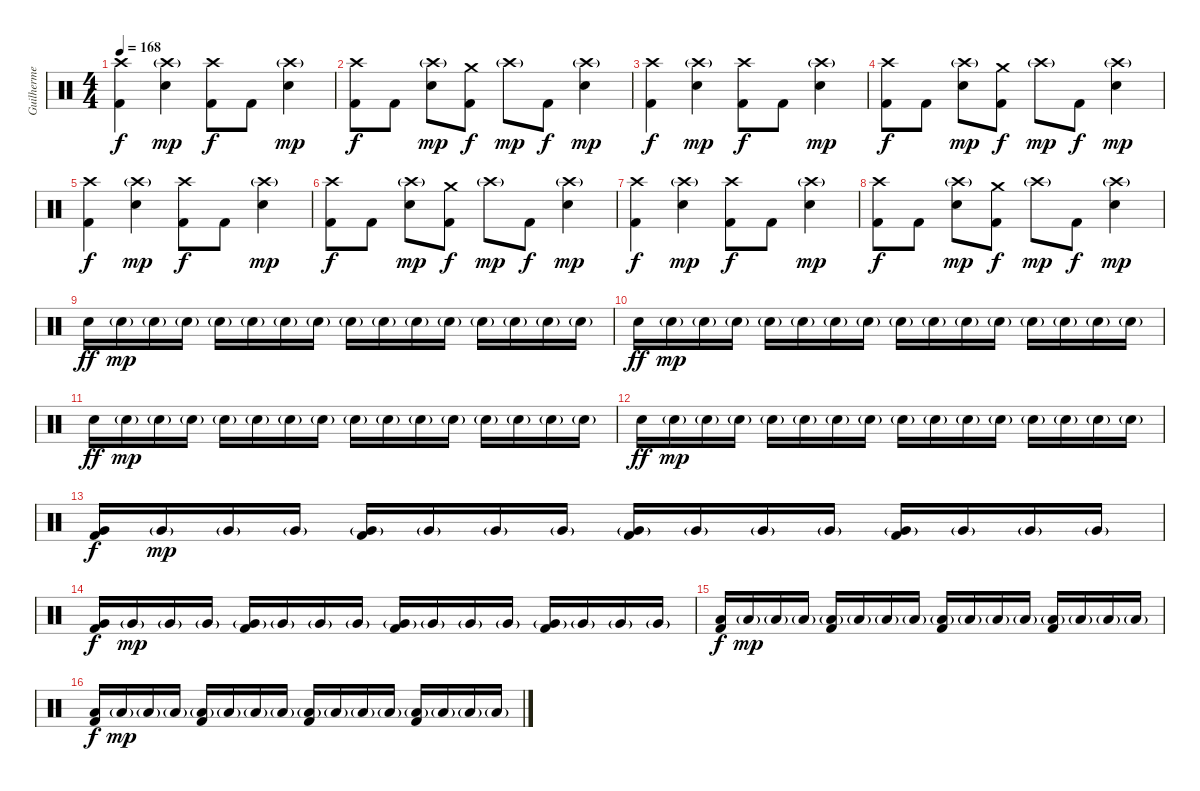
\track ("Guilherme" "Guilherme") {instrument percussion}
\staff {score}
\articulation defaults
\ts (4 4)
\tempo 168
\clef neutral
\ks c
("Crash high (hit)" "Kick (hit) 2").4{dy f} ("Crash high (hit)"{g} "Snare (hit) 2").4{dy mp} ("Crash high (hit)" "Kick (hit) 2").8{dy f} "Kick (hit) 2".8 ("Crash high (hit)"{g} "Snare (hit) 2").4{dy mp} |
("Crash high (hit)" "Kick (hit) 2").8{dy f} "Kick (hit) 2".8 ("Crash high (hit)"{g} "Snare (hit) 2").8{dy mp} ("Crash medium (hit)" "Kick (hit) 2").8{dy f} "Crash high (hit)"{g}.8{dy mp} "Kick (hit) 2".8{dy f} ("Crash high (hit)"{g} "Snare (hit) 2").4{dy mp} |
("Crash high (hit)" "Kick (hit) 2").4{dy f} ("Crash high (hit)"{g} "Snare (hit) 2").4{dy mp} ("Crash high (hit)" "Kick (hit) 2").8{dy f} "Kick (hit) 2".8 ("Crash high (hit)"{g} "Snare (hit) 2").4{dy mp} |
("Crash high (hit)" "Kick (hit) 2").8{dy f} "Kick (hit) 2".8 ("Crash high (hit)"{g} "Snare (hit) 2").8{dy mp} ("Crash medium (hit)" "Kick (hit) 2").8{dy f} "Crash high (hit)"{g}.8{dy mp} "Kick (hit) 2".8{dy f} ("Crash high (hit)"{g} "Snare (hit) 2").4{dy mp} |
("Crash high (hit)" "Kick (hit) 2").4{dy f} ("Crash high (hit)"{g} "Snare (hit) 2").4{dy mp} ("Crash high (hit)" "Kick (hit) 2").8{dy f} "Kick (hit) 2".8 ("Crash high (hit)"{g} "Snare (hit) 2").4{dy mp} |
("Crash high (hit)" "Kick (hit) 2").8{dy f} "Kick (hit) 2".8 ("Crash high (hit)"{g} "Snare (hit) 2").8{dy mp} ("Crash medium (hit)" "Kick (hit) 2").8{dy f} "Crash high (hit)"{g}.8{dy mp} "Kick (hit) 2".8{dy f} ("Crash high (hit)"{g} "Snare (hit) 2").4{dy mp} |
("Crash high (hit)" "Kick (hit) 2").4{dy f} ("Crash high (hit)"{g} "Snare (hit) 2").4{dy mp} ("Crash high (hit)" "Kick (hit) 2").8{dy f} "Kick (hit) 2".8 ("Crash high (hit)"{g} "Snare (hit) 2").4{dy mp} |
("Crash high (hit)" "Kick (hit) 2").8{dy f} "Kick (hit) 2".8 ("Crash high (hit)"{g} "Snare (hit) 2").8{dy mp} ("Crash medium (hit)" "Kick (hit) 2").8{dy f} "Crash high (hit)"{g}.8{dy mp} "Kick (hit) 2".8{dy f} ("Crash high (hit)"{g} "Snare (hit) 2").4{dy mp} |
"Snare (hit) 2".16{dy ff} "Snare (hit) 2"{g}.16{dy mp} "Snare (hit) 2"{g}.16 "Snare (hit) 2"{g}.16 "Snare (hit) 2"{g}.16 "Snare (hit) 2"{g}.16 "Snare (hit) 2"{g}.16 "Snare (hit) 2"{g}.16 "Snare (hit) 2"{g}.16 "Snare (hit) 2"{g}.16 "Snare (hit) 2"{g}.16 "Snare (hit) 2"{g}.16 "Snare (hit) 2"{g}.16 "Snare (hit) 2"{g}.16 "Snare (hit) 2"{g}.16 "Snare (hit) 2"{g}.16 |
"Snare (hit) 2".16{dy ff} "Snare (hit) 2"{g}.16{dy mp} "Snare (hit) 2"{g}.16 "Snare (hit) 2"{g}.16 "Snare (hit) 2"{g}.16 "Snare (hit) 2"{g}.16 "Snare (hit) 2"{g}.16 "Snare (hit) 2"{g}.16 "Snare (hit) 2"{g}.16 "Snare (hit) 2"{g}.16 "Snare (hit) 2"{g}.16 "Snare (hit) 2"{g}.16 "Snare (hit) 2"{g}.16 "Snare (hit) 2"{g}.16 "Snare (hit) 2"{g}.16 "Snare (hit) 2"{g}.16 |
"Snare (hit) 2".16{dy ff} "Snare (hit) 2"{g}.16{dy mp} "Snare (hit) 2"{g}.16 "Snare (hit) 2"{g}.16 "Snare (hit) 2"{g}.16 "Snare (hit) 2"{g}.16 "Snare (hit) 2"{g}.16 "Snare (hit) 2"{g}.16 "Snare (hit) 2"{g}.16 "Snare (hit) 2"{g}.16 "Snare (hit) 2"{g}.16 "Snare (hit) 2"{g}.16 "Snare (hit) 2"{g}.16 "Snare (hit) 2"{g}.16 "Snare (hit) 2"{g}.16 "Snare (hit) 2"{g}.16 |
"Snare (hit) 2".16{dy ff} "Snare (hit) 2"{g}.16{dy mp} "Snare (hit) 2"{g}.16 "Snare (hit) 2"{g}.16 "Snare (hit) 2"{g}.16 "Snare (hit) 2"{g}.16 "Snare (hit) 2"{g}.16 "Snare (hit) 2"{g}.16 "Snare (hit) 2"{g}.16 "Snare (hit) 2"{g}.16 "Snare (hit) 2"{g}.16 "Snare (hit) 2"{g}.16 "Snare (hit) 2"{g}.16 "Snare (hit) 2"{g}.16 "Snare (hit) 2"{g}.16 "Snare (hit) 2"{g}.16 |
("Very Low Tom (hit)" "Kick (hit) 2").16{dy f} "Very Low Tom (hit)"{g}.16{dy mp} "Very Low Tom (hit)"{g}.16 "Very Low Tom (hit)"{g}.16 ("Very Low Tom (hit)"{g} "Kick (hit) 2").16 "Very Low Tom (hit)"{g}.16 "Very Low Tom (hit)"{g}.16 "Very Low Tom (hit)"{g}.16 ("Very Low Tom (hit)"{g} "Kick (hit) 2").16 "Very Low Tom (hit)"{g}.16 "Very Low Tom (hit)"{g}.16 "Very Low Tom (hit)"{g}.16 ("Very Low Tom (hit)"{g} "Kick (hit) 2").16 "Very Low Tom (hit)"{g}.16 "Very Low Tom (hit)"{g}.16 "Very Low Tom (hit)"{g}.16 |
("Very Low Tom (hit)" "Kick (hit) 2").16{dy f} "Very Low Tom (hit)"{g}.16{dy mp} "Very Low Tom (hit)"{g}.16 "Very Low Tom (hit)"{g}.16 ("Very Low Tom (hit)"{g} "Kick (hit) 2").16 "Very Low Tom (hit)"{g}.16 "Very Low Tom (hit)"{g}.16 "Very Low Tom (hit)"{g}.16 ("Very Low Tom (hit)"{g} "Kick (hit) 2").16 "Very Low Tom (hit)"{g}.16 "Very Low Tom (hit)"{g}.16 "Very Low Tom (hit)"{g}.16 ("Very Low Tom (hit)"{g} "Kick (hit) 2").16 "Very Low Tom (hit)"{g}.16 "Very Low Tom (hit)"{g}.16 "Very Low Tom (hit)"{g}.16 |
("Low Floor Tom (hit)" "Kick (hit) 2").16{dy f} "Low Floor Tom (hit)"{g}.16{dy mp} "Low Floor Tom (hit)"{g}.16 "Low Floor Tom (hit)"{g}.16 ("Low Floor Tom (hit)"{g} "Kick (hit) 2").16 "Low Floor Tom (hit)"{g}.16 "Low Floor Tom (hit)"{g}.16 "Low Floor Tom (hit)"{g}.16 ("Low Floor Tom (hit)"{g} "Kick (hit) 2").16 "Low Floor Tom (hit)"{g}.16 "Low Floor Tom (hit)"{g}.16 "Low Floor Tom (hit)"{g}.16 ("Low Floor Tom (hit)"{g} "Kick (hit) 2").16 "Low Floor Tom (hit)"{g}.16 "Low Floor Tom (hit)"{g}.16 "Low Floor Tom (hit)"{g}.16 |
("Low Floor Tom (hit)" "Kick (hit) 2").16{dy f} "Low Floor Tom (hit)"{g}.16{dy mp} "Low Floor Tom (hit)"{g}.16 "Low Floor Tom (hit)"{g}.16 ("Low Floor Tom (hit)"{g} "Kick (hit) 2").16 "Low Floor Tom (hit)"{g}.16 "Low Floor Tom (hit)"{g}.16 "Low Floor Tom (hit)"{g}.16 ("Low Floor Tom (hit)"{g} "Kick (hit) 2").16 "Low Floor Tom (hit)"{g}.16 "Low Floor Tom (hit)"{g}.16 "Low Floor Tom (hit)"{g}.16 ("Low Floor Tom (hit)"{g} "Kick (hit) 2").16 "Low Floor Tom (hit)"{g}.16 "Low Floor Tom (hit)"{g}.16 "Low Floor Tom (hit)"{g}.16
